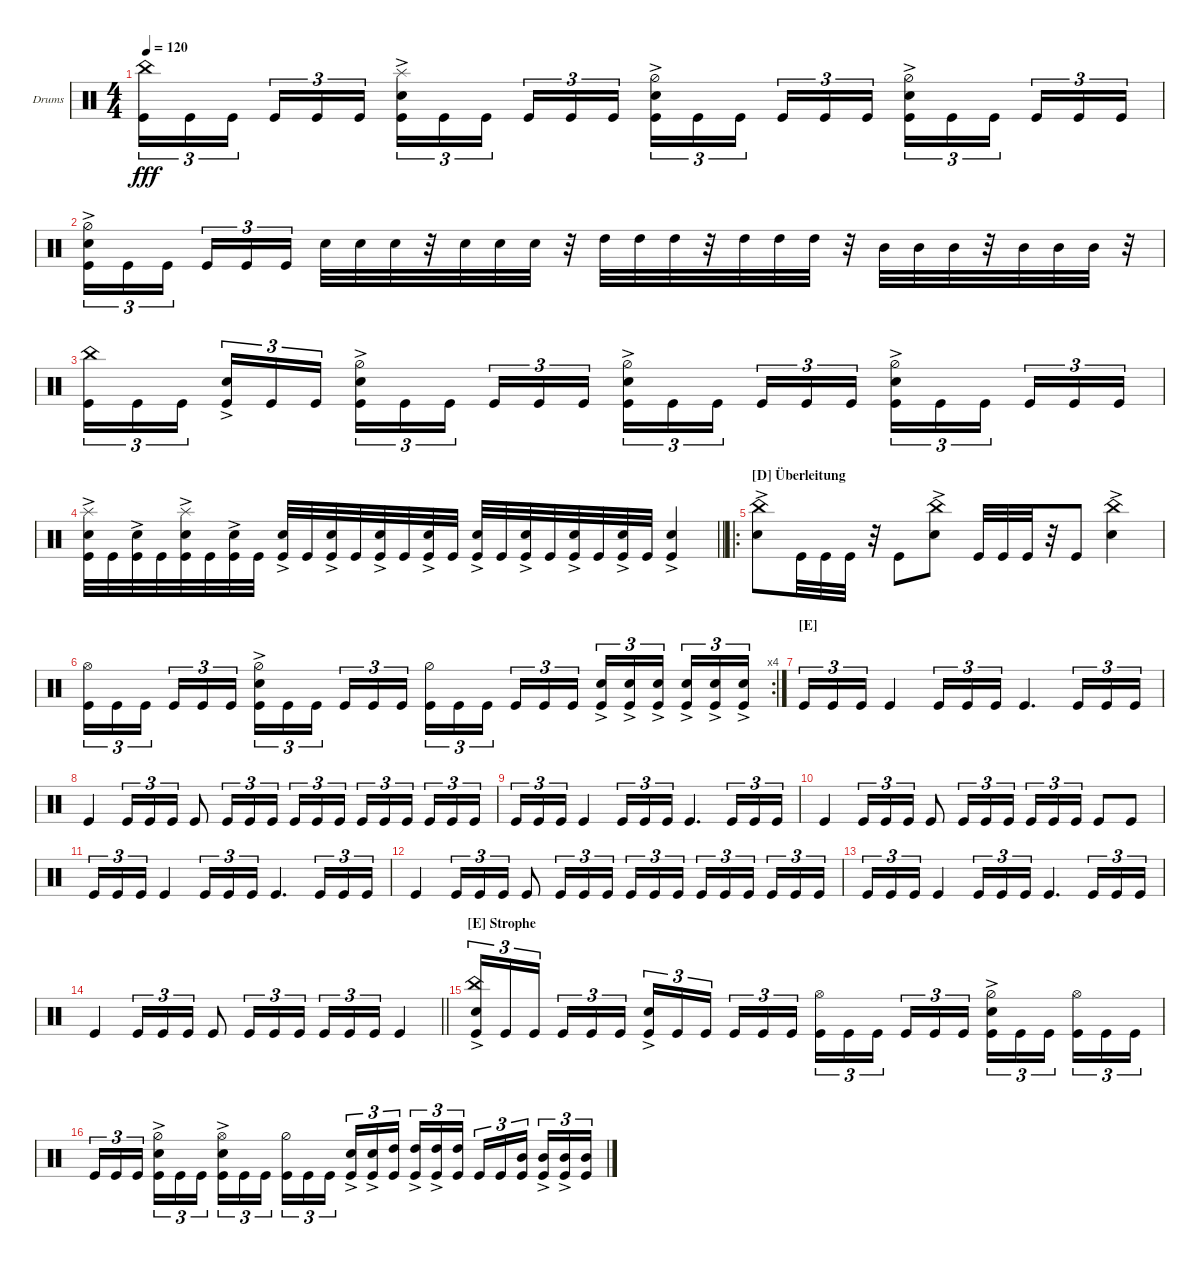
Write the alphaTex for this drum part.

\defaultSystemsLayout 4
\bracketExtendMode groupsimilarinstruments
\firstSystemTrackNameOrientation horizontal
\otherSystemsTrackNameOrientation horizontal
\track ("Drumkit" "Drums") {instrument percussion}
\staff {score}
\articulation defaults
\ts (4 4)
\tempo 120
\clef neutral
\ks c
("Kick (hit)" "China (hit)").16{tu (3 2) dy fff} "Kick (hit)".16{tu (3 2)} "Kick (hit)".16{tu (3 2)} "Kick (hit)".16{tu (3 2)} "Kick (hit)".16{tu (3 2)} "Kick (hit)".16{tu (3 2)} ("Kick (hit)" "Snare (hit) 2"{ac} "Splash (hit)").16{tu (3 2)} "Kick (hit)".16{tu (3 2)} "Kick (hit)".16{tu (3 2)} "Kick (hit)".16{tu (3 2)} "Kick (hit)".16{tu (3 2)} "Kick (hit)".16{tu (3 2)} ("Kick (hit)" "Snare (hit) 2"{ac} "Hi-Hat (half)").16{tu (3 2)} "Kick (hit)".16{tu (3 2)} "Kick (hit)".16{tu (3 2)} "Kick (hit)".16{tu (3 2)} "Kick (hit)".16{tu (3 2)} "Kick (hit)".16{tu (3 2)} ("Kick (hit)" "Snare (hit) 2"{ac} "Hi-Hat (half)").16{tu (3 2)} "Kick (hit)".16{tu (3 2)} "Kick (hit)".16{tu (3 2)} "Kick (hit)".16{tu (3 2)} "Kick (hit)".16{tu (3 2)} "Kick (hit)".16{tu (3 2)} |
("Kick (hit)" "Snare (hit) 2"{ac} "Hi-Hat (half)").16{tu (3 2)} "Kick (hit)".16{tu (3 2)} "Kick (hit)".16{tu (3 2)} "Kick (hit)".16{tu (3 2)} "Kick (hit)".16{tu (3 2)} "Kick (hit)".16{tu (3 2)} "Snare (hit) 2".32 "Snare (hit) 2".32 "Snare (hit) 2".32 r.32 "Snare (hit) 2".32 "Snare (hit) 2".32 "Snare (hit) 2".32 r.32 "High Tom (hit)".32 "High Tom (hit)".32 "High Tom (hit)".32 r.32 "High Tom (hit)".32 "High Tom (hit)".32 "High Tom (hit)".32 r.32 "Mid Tom (hit)".32 "Mid Tom (hit)".32 "Mid Tom (hit)".32 r.32 "Mid Tom (hit)".32 "Mid Tom (hit)".32 "Mid Tom (hit)".32 r.32 |
("Kick (hit)" "China (hit)").16{tu (3 2)} "Kick (hit)".16{tu (3 2)} "Kick (hit)".16{tu (3 2)} ("Kick (hit)" "Snare (hit) 2"{ac}).16{tu (3 2)} "Kick (hit)".16{tu (3 2)} "Kick (hit)".16{tu (3 2)} ("Kick (hit)" "Snare (hit) 2"{ac} "Hi-Hat (half)").16{tu (3 2)} "Kick (hit)".16{tu (3 2)} "Kick (hit)".16{tu (3 2)} "Kick (hit)".16{tu (3 2)} "Kick (hit)".16{tu (3 2)} "Kick (hit)".16{tu (3 2)} ("Kick (hit)" "Snare (hit) 2"{ac} "Hi-Hat (half)").16{tu (3 2)} "Kick (hit)".16{tu (3 2)} "Kick (hit)".16{tu (3 2)} "Kick (hit)".16{tu (3 2)} "Kick (hit)".16{tu (3 2)} "Kick (hit)".16{tu (3 2)} ("Kick (hit)" "Snare (hit) 2"{ac} "Hi-Hat (half)").16{tu (3 2)} "Kick (hit)".16{tu (3 2)} "Kick (hit)".16{tu (3 2)} "Kick (hit)".16{tu (3 2)} "Kick (hit)".16{tu (3 2)} "Kick (hit)".16{tu (3 2)} |
\barLineRight lightlight
("Kick (hit)" "Snare (hit) 2"{ac} "Splash (hit)").32 "Kick (hit)".32 ("Kick (hit)" "Snare (hit) 2"{ac}).32 "Kick (hit)".32 ("Kick (hit)" "Snare (hit) 2"{ac} "Splash (hit)").32 "Kick (hit)".32 ("Kick (hit)" "Snare (hit) 2"{ac}).32 "Kick (hit)".32 ("Kick (hit)" "Snare (hit) 2"{ac}).32 "Kick (hit)".32 ("Kick (hit)" "Snare (hit) 2"{ac}).32 "Kick (hit)".32 ("Kick (hit)" "Snare (hit) 2"{ac}).32 "Kick (hit)".32 ("Kick (hit)" "Snare (hit) 2"{ac}).32 "Kick (hit)".32 ("Kick (hit)" "Snare (hit) 2"{ac}).32 "Kick (hit)".32 ("Kick (hit)" "Snare (hit) 2"{ac}).32 "Kick (hit)".32 ("Kick (hit)" "Snare (hit) 2"{ac}).32 "Kick (hit)".32 ("Kick (hit)" "Snare (hit) 2"{ac}).32 "Kick (hit)".32 ("Kick (hit)" "Snare (hit) 2"{ac}).4 |
\ro
\section ("D" "Überleitung")
("Snare (hit) 2"{ac} "China (hit)").8 "Kick (hit)".32 "Kick (hit)".32 "Kick (hit)".32 r.32 "Kick (hit)".8 ("Snare (hit) 2"{ac} "China (hit)").8 "Kick (hit)".32 "Kick (hit)".32 "Kick (hit)".32 r.32 "Kick (hit)".8 ("Snare (hit) 2"{ac} "China (hit)").4 |
\rc 4
("Kick (hit)" "Hi-Hat (open)").16{tu (3 2)} "Kick (hit)".16{tu (3 2)} "Kick (hit)".16{tu (3 2)} "Kick (hit)".16{tu (3 2)} "Kick (hit)".16{tu (3 2)} "Kick (hit)".16{tu (3 2)} ("Kick (hit)" "Hi-Hat (half)" "Snare (hit) 2"{ac}).16{tu (3 2)} "Kick (hit)".16{tu (3 2)} "Kick (hit)".16{tu (3 2)} "Kick (hit)".16{tu (3 2)} "Kick (hit)".16{tu (3 2)} "Kick (hit)".16{tu (3 2)} ("Kick (hit)" "Hi-Hat (half)").16{tu (3 2)} "Kick (hit)".16{tu (3 2)} "Kick (hit)".16{tu (3 2)} "Kick (hit)".16{tu (3 2)} "Kick (hit)".16{tu (3 2)} "Kick (hit)".16{tu (3 2)} ("Kick (hit)" "Snare (hit) 2"{ac}).16{tu (3 2)} ("Kick (hit)" "Snare (hit) 2"{ac}).16{tu (3 2)} ("Kick (hit)" "Snare (hit) 2"{ac}).16{tu (3 2)} ("Kick (hit)" "Snare (hit) 2"{ac}).16{tu (3 2)} ("Kick (hit)" "Snare (hit) 2"{ac}).16{tu (3 2)} ("Kick (hit)" "Snare (hit) 2"{ac}).16{tu (3 2)} |
\section ("E" "")
"Kick (hit)".16{tu (3 2)} "Kick (hit)".16{tu (3 2)} "Kick (hit)".16{tu (3 2)} "Kick (hit)".4 "Kick (hit)".16{tu (3 2)} "Kick (hit)".16{tu (3 2)} "Kick (hit)".16{tu (3 2)} "Kick (hit)".4{d} "Kick (hit)".16{tu (3 2)} "Kick (hit)".16{tu (3 2)} "Kick (hit)".16{tu (3 2)} |
"Kick (hit)".4 "Kick (hit)".16{tu (3 2)} "Kick (hit)".16{tu (3 2)} "Kick (hit)".16{tu (3 2)} "Kick (hit)".8 "Kick (hit)".16{tu (3 2)} "Kick (hit)".16{tu (3 2)} "Kick (hit)".16{tu (3 2)} "Kick (hit)".16{tu (3 2)} "Kick (hit)".16{tu (3 2)} "Kick (hit)".16{tu (3 2)} "Kick (hit)".16{tu (3 2)} "Kick (hit)".16{tu (3 2)} "Kick (hit)".16{tu (3 2)} "Kick (hit)".16{tu (3 2)} "Kick (hit)".16{tu (3 2)} "Kick (hit)".16{tu (3 2)} |
"Kick (hit)".16{tu (3 2)} "Kick (hit)".16{tu (3 2)} "Kick (hit)".16{tu (3 2)} "Kick (hit)".4 "Kick (hit)".16{tu (3 2)} "Kick (hit)".16{tu (3 2)} "Kick (hit)".16{tu (3 2)} "Kick (hit)".4{d} "Kick (hit)".16{tu (3 2)} "Kick (hit)".16{tu (3 2)} "Kick (hit)".16{tu (3 2)} |
"Kick (hit)".4 "Kick (hit)".16{tu (3 2)} "Kick (hit)".16{tu (3 2)} "Kick (hit)".16{tu (3 2)} "Kick (hit)".8 "Kick (hit)".16{tu (3 2)} "Kick (hit)".16{tu (3 2)} "Kick (hit)".16{tu (3 2)} "Kick (hit)".16{tu (3 2)} "Kick (hit)".16{tu (3 2)} "Kick (hit)".16{tu (3 2)} "Kick (hit)".8 "Kick (hit)".8 |
"Kick (hit)".16{tu (3 2)} "Kick (hit)".16{tu (3 2)} "Kick (hit)".16{tu (3 2)} "Kick (hit)".4 "Kick (hit)".16{tu (3 2)} "Kick (hit)".16{tu (3 2)} "Kick (hit)".16{tu (3 2)} "Kick (hit)".4{d} "Kick (hit)".16{tu (3 2)} "Kick (hit)".16{tu (3 2)} "Kick (hit)".16{tu (3 2)} |
"Kick (hit)".4 "Kick (hit)".16{tu (3 2)} "Kick (hit)".16{tu (3 2)} "Kick (hit)".16{tu (3 2)} "Kick (hit)".8 "Kick (hit)".16{tu (3 2)} "Kick (hit)".16{tu (3 2)} "Kick (hit)".16{tu (3 2)} "Kick (hit)".16{tu (3 2)} "Kick (hit)".16{tu (3 2)} "Kick (hit)".16{tu (3 2)} "Kick (hit)".16{tu (3 2)} "Kick (hit)".16{tu (3 2)} "Kick (hit)".16{tu (3 2)} "Kick (hit)".16{tu (3 2)} "Kick (hit)".16{tu (3 2)} "Kick (hit)".16{tu (3 2)} |
"Kick (hit)".16{tu (3 2)} "Kick (hit)".16{tu (3 2)} "Kick (hit)".16{tu (3 2)} "Kick (hit)".4 "Kick (hit)".16{tu (3 2)} "Kick (hit)".16{tu (3 2)} "Kick (hit)".16{tu (3 2)} "Kick (hit)".4{d} "Kick (hit)".16{tu (3 2)} "Kick (hit)".16{tu (3 2)} "Kick (hit)".16{tu (3 2)} |
\barLineRight lightlight "Kick (hit)".4 "Kick (hit)".16{tu (3 2)} "Kick (hit)".16{tu (3 2)} "Kick (hit)".16{tu (3 2)} "Kick (hit)".8 "Kick (hit)".16{tu (3 2)} "Kick (hit)".16{tu (3 2)} "Kick (hit)".16{tu (3 2)} "Kick (hit)".16{tu (3 2)} "Kick (hit)".16{tu (3 2)} "Kick (hit)".16{tu (3 2)} "Kick (hit)".4
|
\section ("E" "Strophe")
("Kick (hit)" "Snare (hit) 2"{ac} "China (hit)"{ac}).16{tu (3 2)} "Kick (hit)".16{tu (3 2)} "Kick (hit)".16{tu (3 2)} "Kick (hit)".16{tu (3 2)} "Kick (hit)".16{tu (3 2)} "Kick (hit)".16{tu (3 2)} ("Kick (hit)" "Snare (hit) 2"{ac}).16{tu (3 2)} "Kick (hit)".16{tu (3 2)} "Kick (hit)".16{tu (3 2)} "Kick (hit)".16{tu (3 2)} "Kick (hit)".16{tu (3 2)} "Kick (hit)".16{tu (3 2)} ("Kick (hit)" "Hi-Hat (open)").16{tu (3 2)} "Kick (hit)".16{tu (3 2)} "Kick (hit)".16{tu (3 2)} "Kick (hit)".16{tu (3 2)} "Kick (hit)".16{tu (3 2)} "Kick (hit)".16{tu (3 2)} ("Kick (hit)" "Snare (hit) 2"{ac} "Hi-Hat (half)").16{tu (3 2)} "Kick (hit)".16{tu (3 2)} "Kick (hit)".16{tu (3 2)} ("Kick (hit)" "Hi-Hat (open)").16{tu (3 2)} "Kick (hit)".16{tu (3 2)} "Kick (hit)".16{tu (3 2)} |
"Kick (hit)".16{tu (3 2)} "Kick (hit)".16{tu (3 2)} "Kick (hit)".16{tu (3 2)} ("Kick (hit)" "Hi-Hat (half)" "Snare (hit) 2"{ac}).16{tu (3 2)} "Kick (hit)".16{tu (3 2)} "Kick (hit)".16{tu (3 2)} ("Kick (hit)" "Hi-Hat (open)" "Snare (hit) 2"{ac}).16{tu (3 2)} "Kick (hit)".16{tu (3 2)} "Kick (hit)".16{tu (3 2)} ("Kick (hit)" "Hi-Hat (half)").16{tu (3 2)} "Kick (hit)".16{tu (3 2)} "Kick (hit)".16{tu (3 2)} ("Kick (hit)" "Snare (hit) 2"{ac}).16{tu (3 2)} ("Kick (hit)" "Snare (hit) 2"{ac}).16{tu (3 2)} ("Kick (hit)" "High Tom (hit)").16{tu (3 2)} ("Kick (hit)" "High Tom (hit)"{ac}).16{tu (3 2)} ("Kick (hit)" "High Tom (hit)"{ac}).16{tu (3 2)} ("Kick (hit)" "High Tom (hit)").16{tu (3 2)} "Kick (hit)".16{tu (3 2)} "Kick (hit)".16{tu (3 2)} ("Kick (hit)" "Mid Tom (hit)").16{tu (3 2)} ("Kick (hit)" "Mid Tom (hit)"{ac}).16{tu (3 2)} ("Kick (hit)" "Mid Tom (hit)"{ac}).16{tu (3 2)} ("Kick (hit)" "Mid Tom (hit)").16{tu (3 2)}
